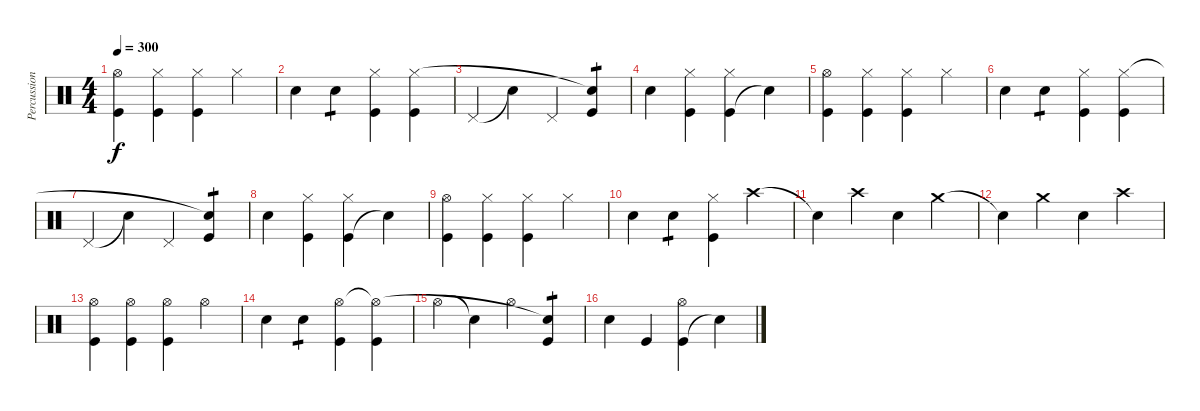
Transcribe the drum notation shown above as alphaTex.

\track ("Percussion" "Percussion") {instrument percussion}
\staff {score}
\articulation defaults
\ts (4 4)
\tempo 300
\clef neutral
\ks c
("Kick (hit)" "Hi-Hat (open)").4{dy f} ("Kick (hit)" "Hi-Hat (closed)").4 ("Kick (hit)" "Hi-Hat (closed)").4 "Hi-Hat (closed)".4 |
"Electric Snare (hit)".4 "Electric Snare (hit)".4{tp 1} ("Kick (hit)" "Hi-Hat (closed)").4 ("Kick (hit)" "Hi-Hat (closed)").4 |
"Pedal Hi-Hat (hit)".4 "Electric Snare (hit)"{t}.4 "Pedal Hi-Hat (hit)".4 ("Kick (hit)" "Snare (hit)"{t}).4{tp 1} |
"Electric Snare (hit)".4 ("Kick (hit)" "Hi-Hat (closed)").4 ("Kick (hit)" "Hi-Hat (closed)").4 "Snare (hit)"{t}.4 |
("Kick (hit)" "Hi-Hat (open)").4 ("Kick (hit)" "Hi-Hat (closed)").4 ("Kick (hit)" "Hi-Hat (closed)").4 "Hi-Hat (closed)".4 |
"Electric Snare (hit)".4 "Electric Snare (hit)".4{tp 1} ("Kick (hit)" "Hi-Hat (closed)").4 ("Kick (hit)" "Hi-Hat (closed)").4 |
"Pedal Hi-Hat (hit)".4 "Electric Snare (hit)"{t}.4 "Pedal Hi-Hat (hit)".4 ("Kick (hit)" "Snare (hit)"{t}).4{tp 1} |
"Electric Snare (hit)".4 ("Kick (hit)" "Hi-Hat (closed)").4 ("Kick (hit)" "Hi-Hat (closed)").4 "Snare (hit)"{t}.4 |
("Kick (hit)" "Hi-Hat (open)").4 ("Kick (hit)" "Hi-Hat (closed)").4 ("Kick (hit)" "Hi-Hat (closed)").4 "Hi-Hat (closed)".4 |
"Electric Snare (hit)".4 "Electric Snare (hit)".4{tp 1} ("Kick (hit)" "Hi-Hat (closed)").4 "Crash high (hit)".4 |
"Snare (hit)"{t}.4 "Crash high (hit)".4 "Electric Snare (hit)".4 "Crash medium (hit)".4 |
"Snare (hit)"{t}.4 "Crash medium (hit)".4 "Electric Snare (hit)".4 "Crash high (hit)".4 |
("Kick (hit)" "Hi-Hat (open)").4 ("Kick (hit)" "Hi-Hat (open)").4 ("Kick (hit)" "Hi-Hat (open)").4 "Hi-Hat (open)".4 |
"Electric Snare (hit)".4 "Electric Snare (hit)".4{tp 1} ("Kick (hit)" "Hi-Hat (open)").4 ("Kick (hit)" "Hi-Hat (open)"{t}).4 |
"Hi-Hat (open)".4 "Electric Snare (hit)"{t}.4 "Hi-Hat (open)".4 ("Kick (hit)" "Snare (hit)"{t}).4{tp 1} |
"Electric Snare (hit)".4 "Kick (hit)".4 ("Kick (hit)" "Hi-Hat (open)").4 "Snare (hit)"{t}.4
